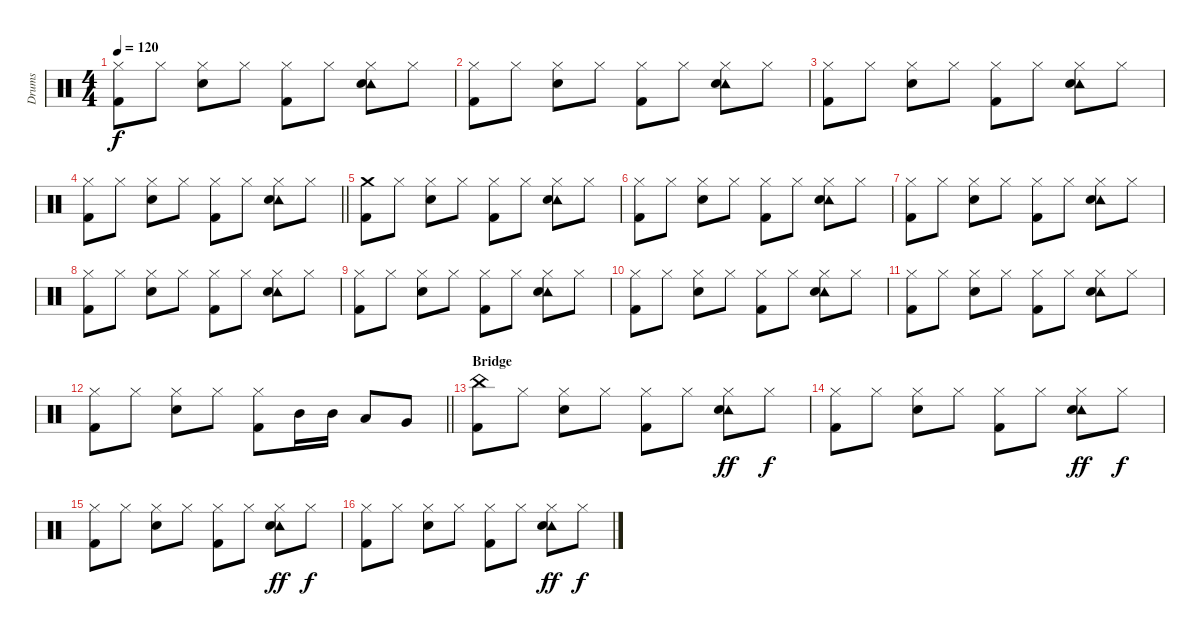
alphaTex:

\track ("Drums" "Drums") {instrument percussion}
\staff {score}
\articulation defaults
\ts (4 4)
\tempo 120
\clef neutral
\ks c
("Hi-Hat (closed)" "Kick (hit) 2").8{dy f} "Hi-Hat (closed)".8 ("Hi-Hat (closed)" "Electric Snare (hit)").8 "Hi-Hat (closed)".8 ("Hi-Hat (closed)" "Kick (hit) 2").8 "Hi-Hat (closed)".8 ("Hi-Hat (closed)" "Tambourine (hit)" "Electric Snare (hit)").8 "Hi-Hat (closed)".8 |
("Hi-Hat (closed)" "Kick (hit) 2").8 "Hi-Hat (closed)".8 ("Hi-Hat (closed)" "Electric Snare (hit)").8 "Hi-Hat (closed)".8 ("Hi-Hat (closed)" "Kick (hit) 2").8 "Hi-Hat (closed)".8 ("Hi-Hat (closed)" "Tambourine (hit)" "Electric Snare (hit)").8 "Hi-Hat (closed)".8 |
("Hi-Hat (closed)" "Kick (hit) 2").8 "Hi-Hat (closed)".8 ("Hi-Hat (closed)" "Electric Snare (hit)").8 "Hi-Hat (closed)".8 ("Hi-Hat (closed)" "Kick (hit) 2").8 "Hi-Hat (closed)".8 ("Hi-Hat (closed)" "Tambourine (hit)" "Electric Snare (hit)").8 "Hi-Hat (closed)".8 |
\barLineRight lightlight
("Hi-Hat (closed)" "Kick (hit) 2").8 "Hi-Hat (closed)".8 ("Hi-Hat (closed)" "Electric Snare (hit)").8 "Hi-Hat (closed)".8 ("Hi-Hat (closed)" "Kick (hit) 2").8 "Hi-Hat (closed)".8 ("Hi-Hat (closed)" "Tambourine (hit)" "Electric Snare (hit)").8 "Hi-Hat (closed)".8 |
("Crash medium (hit)" "Kick (hit) 2").8 "Hi-Hat (closed)".8 ("Hi-Hat (closed)" "Electric Snare (hit)").8 "Hi-Hat (closed)".8 ("Hi-Hat (closed)" "Kick (hit) 2").8 "Hi-Hat (closed)".8 ("Hi-Hat (closed)" "Tambourine (hit)" "Electric Snare (hit)").8 "Hi-Hat (closed)".8 |
("Hi-Hat (closed)" "Kick (hit) 2").8 "Hi-Hat (closed)".8 ("Hi-Hat (closed)" "Electric Snare (hit)").8 "Hi-Hat (closed)".8 ("Hi-Hat (closed)" "Kick (hit) 2").8 "Hi-Hat (closed)".8 ("Hi-Hat (closed)" "Tambourine (hit)" "Electric Snare (hit)").8 "Hi-Hat (closed)".8 |
("Hi-Hat (closed)" "Kick (hit) 2").8 "Hi-Hat (closed)".8 ("Hi-Hat (closed)" "Electric Snare (hit)").8 "Hi-Hat (closed)".8 ("Hi-Hat (closed)" "Kick (hit) 2").8 "Hi-Hat (closed)".8 ("Hi-Hat (closed)" "Tambourine (hit)" "Electric Snare (hit)").8 "Hi-Hat (closed)".8 |
("Hi-Hat (closed)" "Kick (hit) 2").8 "Hi-Hat (closed)".8 ("Hi-Hat (closed)" "Electric Snare (hit)").8 "Hi-Hat (closed)".8 ("Hi-Hat (closed)" "Kick (hit) 2").8 "Hi-Hat (closed)".8 ("Hi-Hat (closed)" "Tambourine (hit)" "Electric Snare (hit)").8 "Hi-Hat (closed)".8 |
("Hi-Hat (closed)" "Kick (hit) 2").8 "Hi-Hat (closed)".8 ("Hi-Hat (closed)" "Electric Snare (hit)").8 "Hi-Hat (closed)".8 ("Hi-Hat (closed)" "Kick (hit) 2").8 "Hi-Hat (closed)".8 ("Hi-Hat (closed)" "Tambourine (hit)" "Electric Snare (hit)").8 "Hi-Hat (closed)".8 |
("Hi-Hat (closed)" "Kick (hit) 2").8 "Hi-Hat (closed)".8 ("Hi-Hat (closed)" "Electric Snare (hit)").8 "Hi-Hat (closed)".8 ("Hi-Hat (closed)" "Kick (hit) 2").8 "Hi-Hat (closed)".8 ("Hi-Hat (closed)" "Tambourine (hit)" "Electric Snare (hit)").8 "Hi-Hat (closed)".8 |
("Hi-Hat (closed)" "Kick (hit) 2").8 "Hi-Hat (closed)".8 ("Hi-Hat (closed)" "Electric Snare (hit)").8 "Hi-Hat (closed)".8 ("Hi-Hat (closed)" "Kick (hit) 2").8 "Hi-Hat (closed)".8 ("Hi-Hat (closed)" "Tambourine (hit)" "Electric Snare (hit)").8 "Hi-Hat (closed)".8 |
\barLineRight lightlight
("Hi-Hat (closed)" "Kick (hit) 2").8 "Hi-Hat (closed)".8 ("Hi-Hat (closed)" "Electric Snare (hit)").8 "Hi-Hat (closed)".8 ("Hi-Hat (closed)" "Kick (hit) 2").8 "Mid Tom (hit)".16 "Mid Tom (hit)".16 "Low Tom (hit)".8 "Very Low Tom (hit)".8 |
\section ("" "Bridge")
("China (hit)" "Kick (hit) 2").8 "Hi-Hat (closed)".8 ("Hi-Hat (closed)" "Electric Snare (hit)").8 "Hi-Hat (closed)".8 ("Hi-Hat (closed)" "Kick (hit) 2").8 "Hi-Hat (closed)".8 ("Hi-Hat (closed)" "Tambourine (hit)" "Electric Snare (hit)").8{dy ff} "Hi-Hat (closed)".8{dy f} |
("Hi-Hat (closed)" "Kick (hit) 2").8 "Hi-Hat (closed)".8 ("Hi-Hat (closed)" "Electric Snare (hit)").8 "Hi-Hat (closed)".8 ("Hi-Hat (closed)" "Kick (hit) 2").8 "Hi-Hat (closed)".8 ("Hi-Hat (closed)" "Tambourine (hit)" "Electric Snare (hit)").8{dy ff} "Hi-Hat (closed)".8{dy f} |
("Hi-Hat (closed)" "Kick (hit) 2").8 "Hi-Hat (closed)".8 ("Hi-Hat (closed)" "Electric Snare (hit)").8 "Hi-Hat (closed)".8 ("Hi-Hat (closed)" "Kick (hit) 2").8 "Hi-Hat (closed)".8 ("Hi-Hat (closed)" "Tambourine (hit)" "Electric Snare (hit)").8{dy ff} "Hi-Hat (closed)".8{dy f} |
("Hi-Hat (closed)" "Kick (hit) 2").8 "Hi-Hat (closed)".8 ("Hi-Hat (closed)" "Electric Snare (hit)").8 "Hi-Hat (closed)".8 ("Hi-Hat (closed)" "Kick (hit) 2").8 "Hi-Hat (closed)".8 ("Hi-Hat (closed)" "Tambourine (hit)" "Electric Snare (hit)").8{dy ff} "Hi-Hat (closed)".8{dy f}
